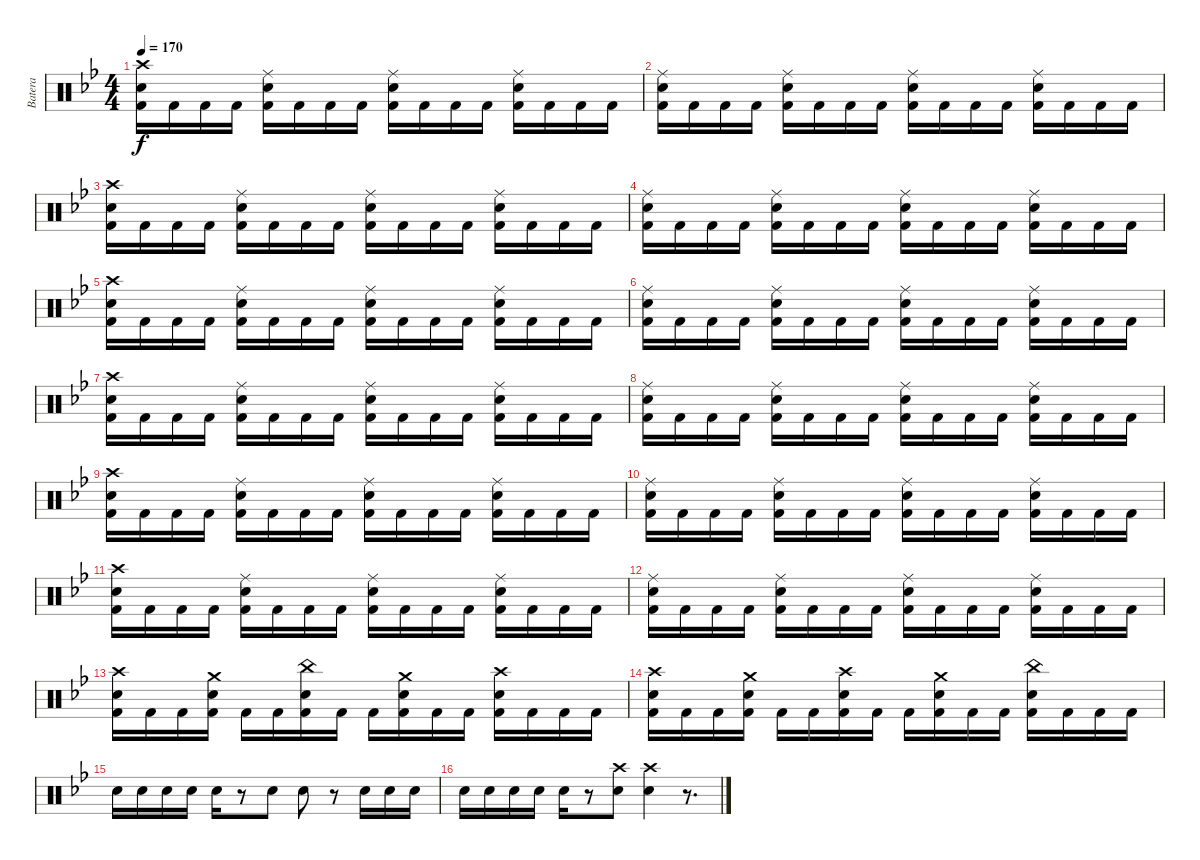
\track ("Batera" "Batera") {instrument percussion}
\staff {score}
\articulation defaults
\ts (4 4)
\tempo 170
\clef neutral
\ks bb
("Crash high (hit)" "Electric Snare (hit)" "Kick (hit) 2").16{dy f} "Kick (hit) 2".16 "Kick (hit) 2".16 "Kick (hit) 2".16 ("Ride (middle)" "Electric Snare (hit)" "Kick (hit) 2").16 "Kick (hit) 2".16 "Kick (hit) 2".16 "Kick (hit) 2".16 ("Ride (middle)" "Electric Snare (hit)" "Kick (hit) 2").16 "Kick (hit) 2".16 "Kick (hit) 2".16 "Kick (hit) 2".16 ("Ride (middle)" "Electric Snare (hit)" "Kick (hit) 2").16 "Kick (hit) 2".16 "Kick (hit) 2".16 "Kick (hit) 2".16 |
("Ride (middle)" "Electric Snare (hit)" "Kick (hit) 2").16 "Kick (hit) 2".16 "Kick (hit) 2".16 "Kick (hit) 2".16 ("Ride (middle)" "Electric Snare (hit)" "Kick (hit) 2").16 "Kick (hit) 2".16 "Kick (hit) 2".16 "Kick (hit) 2".16 ("Ride (middle)" "Electric Snare (hit)" "Kick (hit) 2").16 "Kick (hit) 2".16 "Kick (hit) 2".16 "Kick (hit) 2".16 ("Ride (middle)" "Electric Snare (hit)" "Kick (hit) 2").16 "Kick (hit) 2".16 "Kick (hit) 2".16 "Kick (hit) 2".16 |
("Crash high (hit)" "Electric Snare (hit)" "Kick (hit) 2").16 "Kick (hit) 2".16 "Kick (hit) 2".16 "Kick (hit) 2".16 ("Ride (middle)" "Electric Snare (hit)" "Kick (hit) 2").16 "Kick (hit) 2".16 "Kick (hit) 2".16 "Kick (hit) 2".16 ("Ride (middle)" "Electric Snare (hit)" "Kick (hit) 2").16 "Kick (hit) 2".16 "Kick (hit) 2".16 "Kick (hit) 2".16 ("Ride (middle)" "Electric Snare (hit)" "Kick (hit) 2").16 "Kick (hit) 2".16 "Kick (hit) 2".16 "Kick (hit) 2".16 |
("Ride (middle)" "Electric Snare (hit)" "Kick (hit) 2").16 "Kick (hit) 2".16 "Kick (hit) 2".16 "Kick (hit) 2".16 ("Ride (middle)" "Electric Snare (hit)" "Kick (hit) 2").16 "Kick (hit) 2".16 "Kick (hit) 2".16 "Kick (hit) 2".16 ("Ride (middle)" "Electric Snare (hit)" "Kick (hit) 2").16 "Kick (hit) 2".16 "Kick (hit) 2".16 "Kick (hit) 2".16 ("Ride (middle)" "Electric Snare (hit)" "Kick (hit) 2").16 "Kick (hit) 2".16 "Kick (hit) 2".16 "Kick (hit) 2".16 |
("Crash high (hit)" "Electric Snare (hit)" "Kick (hit) 2").16 "Kick (hit) 2".16 "Kick (hit) 2".16 "Kick (hit) 2".16 ("Ride (middle)" "Electric Snare (hit)" "Kick (hit) 2").16 "Kick (hit) 2".16 "Kick (hit) 2".16 "Kick (hit) 2".16 ("Ride (middle)" "Electric Snare (hit)" "Kick (hit) 2").16 "Kick (hit) 2".16 "Kick (hit) 2".16 "Kick (hit) 2".16 ("Ride (middle)" "Electric Snare (hit)" "Kick (hit) 2").16 "Kick (hit) 2".16 "Kick (hit) 2".16 "Kick (hit) 2".16 |
("Ride (middle)" "Electric Snare (hit)" "Kick (hit) 2").16 "Kick (hit) 2".16 "Kick (hit) 2".16 "Kick (hit) 2".16 ("Ride (middle)" "Electric Snare (hit)" "Kick (hit) 2").16 "Kick (hit) 2".16 "Kick (hit) 2".16 "Kick (hit) 2".16 ("Ride (middle)" "Electric Snare (hit)" "Kick (hit) 2").16 "Kick (hit) 2".16 "Kick (hit) 2".16 "Kick (hit) 2".16 ("Ride (middle)" "Electric Snare (hit)" "Kick (hit) 2").16 "Kick (hit) 2".16 "Kick (hit) 2".16 "Kick (hit) 2".16 |
("Crash high (hit)" "Electric Snare (hit)" "Kick (hit) 2").16 "Kick (hit) 2".16 "Kick (hit) 2".16 "Kick (hit) 2".16 ("Ride (middle)" "Electric Snare (hit)" "Kick (hit) 2").16 "Kick (hit) 2".16 "Kick (hit) 2".16 "Kick (hit) 2".16 ("Ride (middle)" "Electric Snare (hit)" "Kick (hit) 2").16 "Kick (hit) 2".16 "Kick (hit) 2".16 "Kick (hit) 2".16 ("Ride (middle)" "Electric Snare (hit)" "Kick (hit) 2").16 "Kick (hit) 2".16 "Kick (hit) 2".16 "Kick (hit) 2".16 |
("Ride (middle)" "Electric Snare (hit)" "Kick (hit) 2").16 "Kick (hit) 2".16 "Kick (hit) 2".16 "Kick (hit) 2".16 ("Ride (middle)" "Electric Snare (hit)" "Kick (hit) 2").16 "Kick (hit) 2".16 "Kick (hit) 2".16 "Kick (hit) 2".16 ("Ride (middle)" "Electric Snare (hit)" "Kick (hit) 2").16 "Kick (hit) 2".16 "Kick (hit) 2".16 "Kick (hit) 2".16 ("Ride (middle)" "Electric Snare (hit)" "Kick (hit) 2").16 "Kick (hit) 2".16 "Kick (hit) 2".16 "Kick (hit) 2".16 |
("Crash high (hit)" "Electric Snare (hit)" "Kick (hit) 2").16 "Kick (hit) 2".16 "Kick (hit) 2".16 "Kick (hit) 2".16 ("Ride (middle)" "Electric Snare (hit)" "Kick (hit) 2").16 "Kick (hit) 2".16 "Kick (hit) 2".16 "Kick (hit) 2".16 ("Ride (middle)" "Electric Snare (hit)" "Kick (hit) 2").16 "Kick (hit) 2".16 "Kick (hit) 2".16 "Kick (hit) 2".16 ("Ride (middle)" "Electric Snare (hit)" "Kick (hit) 2").16 "Kick (hit) 2".16 "Kick (hit) 2".16 "Kick (hit) 2".16 |
("Ride (middle)" "Electric Snare (hit)" "Kick (hit) 2").16 "Kick (hit) 2".16 "Kick (hit) 2".16 "Kick (hit) 2".16 ("Ride (middle)" "Electric Snare (hit)" "Kick (hit) 2").16 "Kick (hit) 2".16 "Kick (hit) 2".16 "Kick (hit) 2".16 ("Ride (middle)" "Electric Snare (hit)" "Kick (hit) 2").16 "Kick (hit) 2".16 "Kick (hit) 2".16 "Kick (hit) 2".16 ("Ride (middle)" "Electric Snare (hit)" "Kick (hit) 2").16 "Kick (hit) 2".16 "Kick (hit) 2".16 "Kick (hit) 2".16 |
("Crash high (hit)" "Electric Snare (hit)" "Kick (hit) 2").16 "Kick (hit) 2".16 "Kick (hit) 2".16 "Kick (hit) 2".16 ("Ride (middle)" "Electric Snare (hit)" "Kick (hit) 2").16 "Kick (hit) 2".16 "Kick (hit) 2".16 "Kick (hit) 2".16 ("Ride (middle)" "Electric Snare (hit)" "Kick (hit) 2").16 "Kick (hit) 2".16 "Kick (hit) 2".16 "Kick (hit) 2".16 ("Ride (middle)" "Electric Snare (hit)" "Kick (hit) 2").16 "Kick (hit) 2".16 "Kick (hit) 2".16 "Kick (hit) 2".16 |
("Ride (middle)" "Electric Snare (hit)" "Kick (hit) 2").16 "Kick (hit) 2".16 "Kick (hit) 2".16 "Kick (hit) 2".16 ("Ride (middle)" "Electric Snare (hit)" "Kick (hit) 2").16 "Kick (hit) 2".16 "Kick (hit) 2".16 "Kick (hit) 2".16 ("Ride (middle)" "Electric Snare (hit)" "Kick (hit) 2").16 "Kick (hit) 2".16 "Kick (hit) 2".16 "Kick (hit) 2".16 ("Ride (middle)" "Electric Snare (hit)" "Kick (hit) 2").16 "Kick (hit) 2".16 "Kick (hit) 2".16 "Kick (hit) 2".16 |
("Crash high (hit)" "Electric Snare (hit)" "Kick (hit) 2").16 "Kick (hit) 2".16 "Kick (hit) 2".16 ("Crash medium (hit)" "Electric Snare (hit)" "Kick (hit) 2").16 "Kick (hit) 2".16 "Kick (hit) 2".16 ("China (hit)" "Electric Snare (hit)" "Kick (hit) 2").16 "Kick (hit) 2".16 "Kick (hit) 2".16 ("Crash medium (hit)" "Electric Snare (hit)" "Kick (hit) 2").16 "Kick (hit) 2".16 "Kick (hit) 2".16 ("Crash high (hit)" "Electric Snare (hit)" "Kick (hit) 2").16 "Kick (hit) 2".16 "Kick (hit) 2".16 "Kick (hit) 2".16 |
("Crash high (hit)" "Electric Snare (hit)" "Kick (hit) 2").16 "Kick (hit) 2".16 "Kick (hit) 2".16 ("Crash medium (hit)" "Electric Snare (hit)" "Kick (hit) 2").16 "Kick (hit) 2".16 "Kick (hit) 2".16 ("Crash high (hit)" "Electric Snare (hit)" "Kick (hit) 2").16 "Kick (hit) 2".16 "Kick (hit) 2".16 ("Crash medium (hit)" "Electric Snare (hit)" "Kick (hit) 2").16 "Kick (hit) 2".16 "Kick (hit) 2".16 ("China (hit)" "Electric Snare (hit)" "Kick (hit) 2").16 "Kick (hit) 2".16 "Kick (hit) 2".16 "Kick (hit) 2".16 |
"Electric Snare (hit)".16 "Electric Snare (hit)".16 "Electric Snare (hit)".16 "Electric Snare (hit)".16 "Electric Snare (hit)".16 r.8 "Electric Snare (hit)".8 "Electric Snare (hit)".8 r.8 "Electric Snare (hit)".16 "Electric Snare (hit)".16 "Electric Snare (hit)".16 |
"Electric Snare (hit)".16 "Electric Snare (hit)".16 "Electric Snare (hit)".16 "Electric Snare (hit)".16 "Electric Snare (hit)".16 r.8 ("Crash high (hit)" "Electric Snare (hit)").8 ("Crash high (hit)" "Electric Snare (hit)").4 r.8{d}
